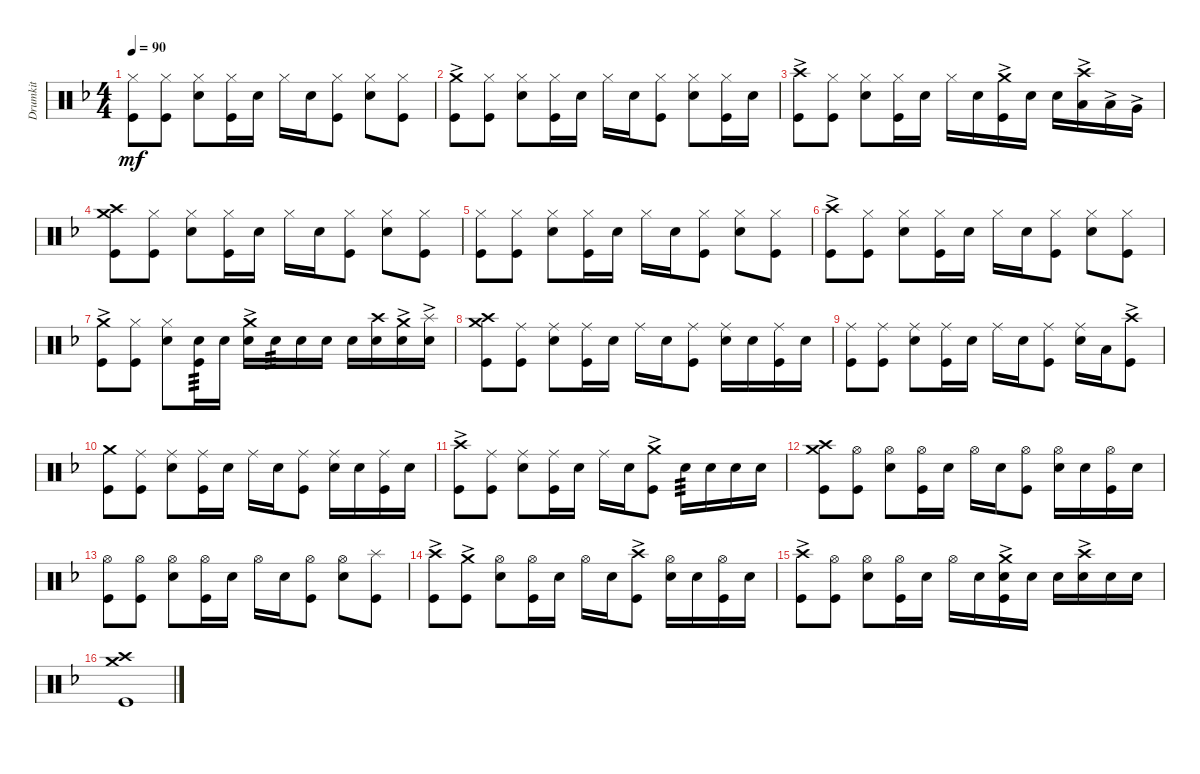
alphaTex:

\track ("Drumkit" "Drumkit") {instrument percussion}
\staff {score}
\articulation defaults
\ts (4 4)
\tempo 90
\clef neutral
\ks f
("Kick (hit)" "Hi-Hat (closed)").8{dy mf} ("Kick (hit)" "Hi-Hat (closed)").8 ("Snare (hit) 2" "Hi-Hat (closed)").8 ("Kick (hit)" "Hi-Hat (closed)").16 "Snare (hit) 2".16 "Hi-Hat (closed)".16 "Snare (hit) 2".16 ("Kick (hit)" "Hi-Hat (closed)").8 ("Snare (hit) 2" "Hi-Hat (closed)").8 ("Kick (hit)" "Hi-Hat (closed)").8 |
("Kick (hit)" "Crash medium (hit)"{ac}).8 ("Kick (hit)" "Hi-Hat (closed)").8 ("Snare (hit) 2" "Hi-Hat (closed)").8 ("Kick (hit)" "Hi-Hat (closed)").16 "Snare (hit) 2".16 "Hi-Hat (closed)".16 "Snare (hit) 2".16 ("Kick (hit)" "Hi-Hat (closed)").8 ("Snare (hit) 2" "Hi-Hat (closed)").8 ("Kick (hit)" "Hi-Hat (closed)").16 "Snare (hit) 2".16 |
("Kick (hit)" "Crash high (hit)"{ac}).8 ("Kick (hit)" "Hi-Hat (closed)").8 ("Snare (hit) 2" "Hi-Hat (closed)").8 ("Kick (hit)" "Hi-Hat (closed)").16 "Snare (hit) 2".16 "Hi-Hat (closed)".16 "Snare (hit) 2".16 ("Kick (hit)" "Crash medium (hit)"{ac}).16 "Snare (hit) 2".16 "Snare (hit) 2".16 ("Crash high (hit)"{ac} "Low Tom (hit)"{ac}).16 "Low Tom (hit)"{ac}.16 "Very Low Tom (hit)"{ac}.16 |
("Kick (hit)" "Crash high (hit)" "Crash medium (hit)").8 ("Kick (hit)" "Hi-Hat (closed)").8 ("Snare (hit) 2" "Hi-Hat (closed)").8 ("Kick (hit)" "Hi-Hat (closed)").16 "Snare (hit) 2".16 "Hi-Hat (closed)".16 "Snare (hit) 2".16 ("Kick (hit)" "Hi-Hat (closed)").8 ("Snare (hit) 2" "Hi-Hat (closed)").8 ("Kick (hit)" "Hi-Hat (closed)").8 |
("Kick (hit)" "Hi-Hat (closed)").8 ("Kick (hit)" "Hi-Hat (closed)").8 ("Snare (hit) 2" "Hi-Hat (closed)").8 ("Kick (hit)" "Hi-Hat (closed)").16 "Snare (hit) 2".16 "Hi-Hat (closed)".16 "Snare (hit) 2".16 ("Kick (hit)" "Hi-Hat (closed)").8 ("Snare (hit) 2" "Hi-Hat (closed)").8 ("Kick (hit)" "Hi-Hat (closed)").8 |
("Kick (hit)" "Crash high (hit)"{ac}).8 ("Kick (hit)" "Hi-Hat (closed)").8 ("Snare (hit) 2" "Hi-Hat (closed)").8 ("Kick (hit)" "Hi-Hat (closed)").16 "Snare (hit) 2".16 "Hi-Hat (closed)".16 "Snare (hit) 2".16 ("Kick (hit)" "Hi-Hat (closed)").8 ("Snare (hit) 2" "Hi-Hat (closed)").8 ("Kick (hit)" "Hi-Hat (closed)").8 |
("Kick (hit)" "Crash medium (hit)"{ac}).8 ("Kick (hit)" "Hi-Hat (closed)").8 ("Snare (hit) 2" "Hi-Hat (closed)").8 ("Snare (hit) 2" "Kick (hit)").16{tp 3} "Snare (hit) 2".16 ("Snare (hit) 2" "Crash medium (hit)"{ac}).16 "Snare (hit) 2".16{tp 3} "Snare (hit) 2".16 "Snare (hit) 2".16 "Snare (hit) 2".16 ("Snare (hit) 2" "Crash high (hit)").16 ("Crash medium (hit)"{ac} "Snare (hit) 2").16 ("Splash (hit)"{ac} "Snare (hit) 2").16 |
("Kick (hit)" "Crash high (hit)" "Crash medium (hit)").8 ("Kick (hit)" "Ride (middle)").8 ("Snare (hit) 2" "Ride (middle)").8 ("Kick (hit)" "Ride (middle)").16 "Snare (hit) 2".16 "Ride (middle)".16 "Snare (hit) 2".16 ("Kick (hit)" "Ride (middle)").8 ("Snare (hit) 2" "Ride (middle)").16 "Snare (hit) 2".16 ("Kick (hit)" "Ride (middle)").16 "Snare (hit) 2".16 |
("Kick (hit)" "Ride (middle)").8 ("Kick (hit)" "Ride (middle)").8 ("Snare (hit) 2" "Ride (middle)").8 ("Kick (hit)" "Ride (middle)").16 "Snare (hit) 2".16 "Ride (middle)".16 "Snare (hit) 2".16 ("Kick (hit)" "Ride (middle)").8 ("Snare (hit) 2" "Ride (middle)").16 "Low Tom (hit)".16 ("Kick (hit)" "Crash high (hit)"{ac}).8 |
("Kick (hit)" "Crash medium (hit)").8 ("Kick (hit)" "Ride (middle)").8 ("Snare (hit) 2" "Ride (middle)").8 ("Kick (hit)" "Ride (middle)").16 "Snare (hit) 2".16 "Ride (middle)".16 "Snare (hit) 2".16 ("Kick (hit)" "Ride (middle)").8 ("Snare (hit) 2" "Ride (middle)").16 "Snare (hit) 2".16 ("Kick (hit)" "Ride (middle)").16 "Snare (hit) 2".16 |
("Kick (hit)" "Crash high (hit)"{ac}).8 ("Kick (hit)" "Ride (middle)").8 ("Snare (hit) 2" "Ride (middle)").8 ("Kick (hit)" "Ride (middle)").16 "Snare (hit) 2".16 "Ride (middle)".16 "Snare (hit) 2".16 ("Kick (hit)" "Crash medium (hit)"{ac}).8 "Snare (hit) 2".16{tp 3} "Snare (hit) 2".16 "Snare (hit) 2".16 "Snare (hit) 2".16 |
("Kick (hit)" "Crash high (hit)" "Crash medium (hit)").8 ("Kick (hit)" "Hi-Hat (open)").8 ("Snare (hit) 2" "Hi-Hat (open)").8 ("Kick (hit)" "Hi-Hat (open)").16 "Snare (hit) 2".16 "Hi-Hat (open)".16 "Snare (hit) 2".16 ("Kick (hit)" "Hi-Hat (open)").8 ("Snare (hit) 2" "Hi-Hat (open)").16 "Snare (hit) 2".16 ("Kick (hit)" "Hi-Hat (open)").16 "Snare (hit) 2".16 |
("Kick (hit)" "Hi-Hat (open)").8 ("Kick (hit)" "Hi-Hat (open)").8 ("Snare (hit) 2" "Hi-Hat (open)").8 ("Kick (hit)" "Hi-Hat (open)").16 "Snare (hit) 2".16 "Hi-Hat (open)".16 "Snare (hit) 2".16 ("Kick (hit)" "Hi-Hat (open)").8 ("Snare (hit) 2" "Hi-Hat (open)").8 ("Kick (hit)" "Splash (hit)").8 |
("Kick (hit)" "Crash high (hit)"{ac}).8 ("Kick (hit)" "Crash medium (hit)"{ac}).8 ("Snare (hit) 2" "Hi-Hat (open)").8 ("Kick (hit)" "Hi-Hat (open)").16 "Snare (hit) 2".16 "Hi-Hat (open)".16 "Snare (hit) 2".16 ("Kick (hit)" "Crash high (hit)"{ac}).8 ("Snare (hit) 2" "Hi-Hat (open)").16 "Snare (hit) 2".16 ("Kick (hit)" "Hi-Hat (open)").16 "Snare (hit) 2".16 |
("Kick (hit)" "Crash high (hit)"{ac}).8 ("Kick (hit)" "Hi-Hat (open)").8 ("Snare (hit) 2" "Hi-Hat (open)").8 ("Kick (hit)" "Hi-Hat (open)").16 "Snare (hit) 2".16 "Hi-Hat (open)".16 "Snare (hit) 2".16 ("Kick (hit)" "Snare (hit) 2" "Crash medium (hit)"{ac}).16 "Snare (hit) 2".16 "Snare (hit) 2".16 ("Snare (hit) 2" "Crash high (hit)"{ac}).16 "Snare (hit) 2".16 "Snare (hit) 2".16 |
("Crash medium (hit)" "Crash high (hit)" "Kick (hit)").1
